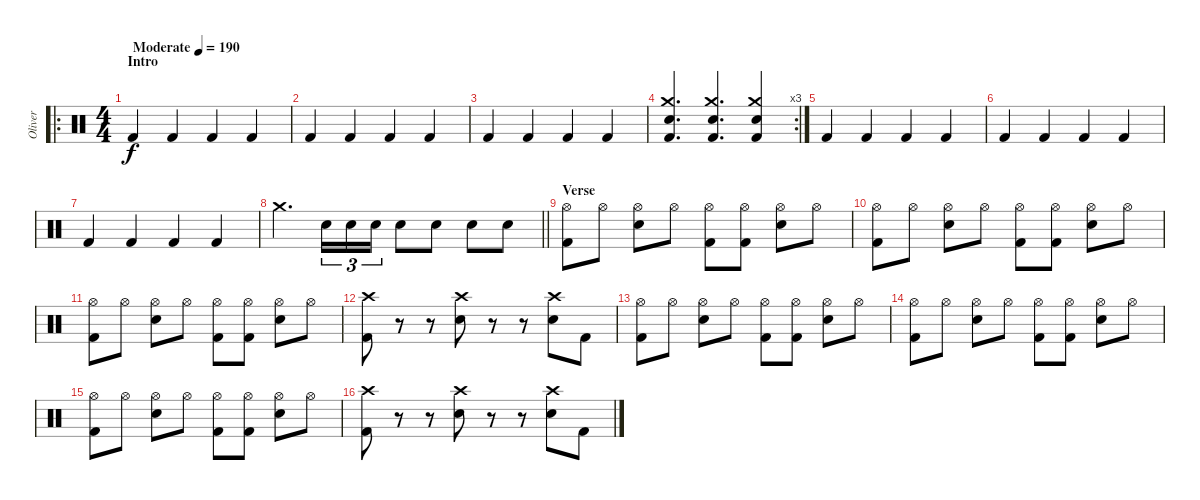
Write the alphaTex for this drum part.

\track ("Oliver" "Oliver") {instrument percussion}
\staff {score}
\articulation defaults
\ro
\ts (4 4)
\section ("" "Intro")
\tempo (190 "Moderate")
\clef neutral
\ks c "Kick (hit) 2".4{dy f} "Kick (hit) 2".4 "Kick (hit) 2".4 "Kick (hit) 2".4
|
"Kick (hit) 2".4 "Kick (hit) 2".4 "Kick (hit) 2".4 "Kick (hit) 2".4 |
"Kick (hit) 2".4 "Kick (hit) 2".4 "Kick (hit) 2".4 "Kick (hit) 2".4 |
\rc 3
("Crash medium (hit)" "Kick (hit) 2" "Snare (hit) 2").4{d} ("Crash medium (hit)" "Kick (hit) 2" "Snare (hit) 2").4{d} ("Crash medium (hit)" "Kick (hit) 2" "Snare (hit) 2").4 |
"Kick (hit) 2".4 "Kick (hit) 2".4 "Kick (hit) 2".4 "Kick (hit) 2".4 |
"Kick (hit) 2".4 "Kick (hit) 2".4 "Kick (hit) 2".4 "Kick (hit) 2".4 |
"Kick (hit) 2".4 "Kick (hit) 2".4 "Kick (hit) 2".4 "Kick (hit) 2".4 |
\barLineRight lightlight "Crash medium (hit)".4{d} "Snare (hit) 2".16{tu (3 2)} "Snare (hit) 2".16{tu (3 2)} "Snare (hit) 2".16{tu (3 2)} "Snare (hit) 2".8 "Snare (hit) 2".8 "Snare (hit) 2".8 "Snare (hit) 2".8
|
\section ("" "Verse")
("Hi-Hat (open)" "Kick (hit) 2").8 "Hi-Hat (open)".8 ("Hi-Hat (open)" "Snare (hit) 2").8 "Hi-Hat (open)".8 ("Hi-Hat (open)" "Kick (hit) 2").8 ("Hi-Hat (open)" "Kick (hit) 2").8 ("Hi-Hat (open)" "Snare (hit) 2").8 "Hi-Hat (open)".8 |
("Hi-Hat (open)" "Kick (hit) 2").8 "Hi-Hat (open)".8 ("Hi-Hat (open)" "Snare (hit) 2").8 "Hi-Hat (open)".8 ("Hi-Hat (open)" "Kick (hit) 2").8 ("Hi-Hat (open)" "Kick (hit) 2").8 ("Hi-Hat (open)" "Snare (hit) 2").8 "Hi-Hat (open)".8 |
("Hi-Hat (open)" "Kick (hit) 2").8 "Hi-Hat (open)".8 ("Hi-Hat (open)" "Snare (hit) 2").8 "Hi-Hat (open)".8 ("Hi-Hat (open)" "Kick (hit) 2").8 ("Hi-Hat (open)" "Kick (hit) 2").8 ("Hi-Hat (open)" "Snare (hit) 2").8 "Hi-Hat (open)".8 |
("Crash high (hit)" "Kick (hit) 2").8 r.8 r.8 ("Crash high (hit)" "Snare (hit) 2").8 r.8 r.8 ("Crash high (hit)" "Snare (hit) 2").8 "Kick (hit) 2".8 |
("Hi-Hat (open)" "Kick (hit) 2").8 "Hi-Hat (open)".8 ("Hi-Hat (open)" "Snare (hit) 2").8 "Hi-Hat (open)".8 ("Hi-Hat (open)" "Kick (hit) 2").8 ("Hi-Hat (open)" "Kick (hit) 2").8 ("Hi-Hat (open)" "Snare (hit) 2").8 "Hi-Hat (open)".8 |
("Hi-Hat (open)" "Kick (hit) 2").8 "Hi-Hat (open)".8 ("Hi-Hat (open)" "Snare (hit) 2").8 "Hi-Hat (open)".8 ("Hi-Hat (open)" "Kick (hit) 2").8 ("Hi-Hat (open)" "Kick (hit) 2").8 ("Hi-Hat (open)" "Snare (hit) 2").8 "Hi-Hat (open)".8 |
("Hi-Hat (open)" "Kick (hit) 2").8 "Hi-Hat (open)".8 ("Hi-Hat (open)" "Snare (hit) 2").8 "Hi-Hat (open)".8 ("Hi-Hat (open)" "Kick (hit) 2").8 ("Hi-Hat (open)" "Kick (hit) 2").8 ("Hi-Hat (open)" "Snare (hit) 2").8 "Hi-Hat (open)".8 |
("Crash high (hit)" "Kick (hit) 2").8 r.8 r.8 ("Crash high (hit)" "Snare (hit) 2").8 r.8 r.8 ("Crash high (hit)" "Snare (hit) 2").8 "Kick (hit) 2".8
